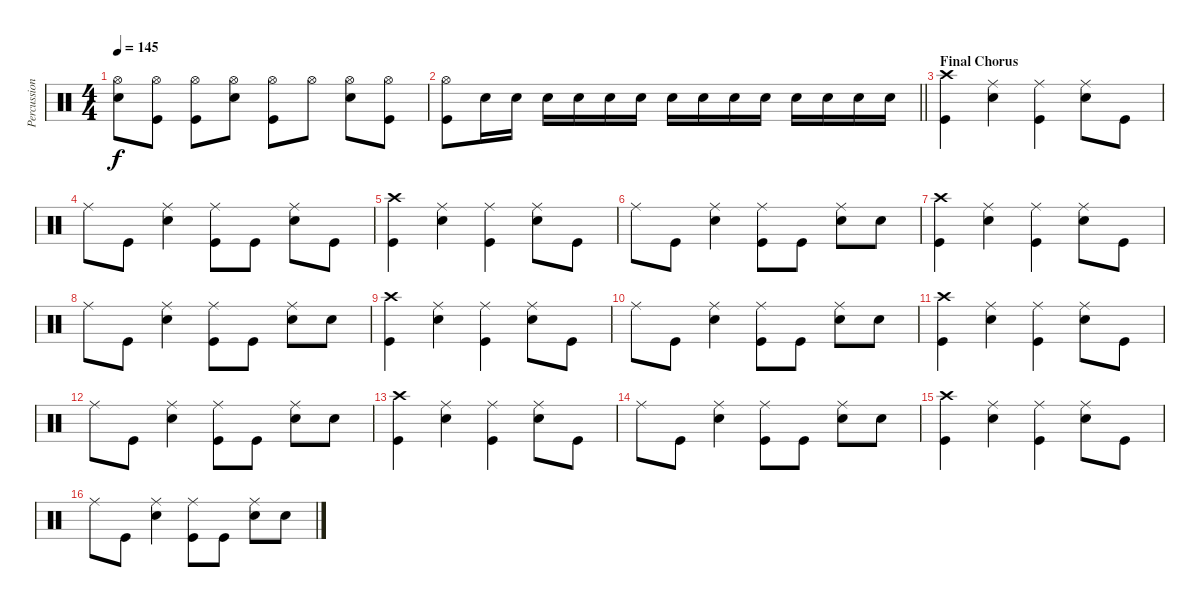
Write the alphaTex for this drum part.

\track ("Percussion" "Percussion") {instrument percussion}
\staff {score}
\articulation defaults
\ts (4 4)
\tempo 145
\clef neutral
\ks c
("Hi-Hat (open)" "Snare (hit) 2").8{dy f} ("Kick (hit)" "Hi-Hat (open)").8 ("Kick (hit)" "Hi-Hat (open)").8 ("Hi-Hat (open)" "Snare (hit) 2").8 ("Kick (hit)" "Hi-Hat (open)").8 "Hi-Hat (open)".8 ("Hi-Hat (open)" "Snare (hit) 2").8 ("Kick (hit)" "Hi-Hat (open)").8 |
\barLineRight lightlight
("Kick (hit)" "Hi-Hat (open)").8 "Snare (hit) 2".16 "Snare (hit) 2".16 "Snare (hit) 2".16 "Snare (hit) 2".16 "Snare (hit) 2".16 "Snare (hit) 2".16 "Snare (hit) 2".16 "Snare (hit) 2".16 "Snare (hit) 2".16 "Snare (hit) 2".16 "Snare (hit) 2".16 "Snare (hit) 2".16 "Snare (hit) 2".16 "Snare (hit) 2".16 |
\section ("" "Final Chorus")
("Kick (hit)" "Crash high (hit)").4 ("Ride (middle)" "Snare (hit) 2").4 ("Kick (hit)" "Ride (middle)").4 ("Ride (middle)" "Snare (hit) 2").8 "Kick (hit)".8 |
"Ride (middle)".8 "Kick (hit)".8 ("Ride (middle)" "Snare (hit) 2").4 ("Kick (hit)" "Ride (middle)").8 "Kick (hit)".8 ("Ride (middle)" "Snare (hit) 2").8 "Kick (hit)".8 |
("Kick (hit)" "Crash high (hit)").4 ("Ride (middle)" "Snare (hit) 2").4 ("Kick (hit)" "Ride (middle)").4 ("Ride (middle)" "Snare (hit) 2").8 "Kick (hit)".8 |
"Ride (middle)".8 "Kick (hit)".8 ("Ride (middle)" "Snare (hit) 2").4 ("Kick (hit)" "Ride (middle)").8 "Kick (hit)".8 ("Ride (middle)" "Snare (hit) 2").8 "Snare (hit) 2".8 |
("Kick (hit)" "Crash high (hit)").4 ("Ride (middle)" "Snare (hit) 2").4 ("Kick (hit)" "Ride (middle)").4 ("Ride (middle)" "Snare (hit) 2").8 "Kick (hit)".8 |
"Ride (middle)".8 "Kick (hit)".8 ("Ride (middle)" "Snare (hit) 2").4 ("Kick (hit)" "Ride (middle)").8 "Kick (hit)".8 ("Ride (middle)" "Snare (hit) 2").8 "Snare (hit) 2".8 |
("Kick (hit)" "Crash high (hit)").4 ("Ride (middle)" "Snare (hit) 2").4 ("Kick (hit)" "Ride (middle)").4 ("Ride (middle)" "Snare (hit) 2").8 "Kick (hit)".8 |
"Ride (middle)".8 "Kick (hit)".8 ("Ride (middle)" "Snare (hit) 2").4 ("Kick (hit)" "Ride (middle)").8 "Kick (hit)".8 ("Ride (middle)" "Snare (hit) 2").8 "Snare (hit) 2".8 |
("Kick (hit)" "Crash high (hit)").4 ("Ride (middle)" "Snare (hit) 2").4 ("Kick (hit)" "Ride (middle)").4 ("Ride (middle)" "Snare (hit) 2").8 "Kick (hit)".8 |
"Ride (middle)".8 "Kick (hit)".8 ("Ride (middle)" "Snare (hit) 2").4 ("Kick (hit)" "Ride (middle)").8 "Kick (hit)".8 ("Ride (middle)" "Snare (hit) 2").8 "Snare (hit) 2".8 |
("Kick (hit)" "Crash high (hit)").4 ("Ride (middle)" "Snare (hit) 2").4 ("Kick (hit)" "Ride (middle)").4 ("Ride (middle)" "Snare (hit) 2").8 "Kick (hit)".8 |
"Ride (middle)".8 "Kick (hit)".8 ("Ride (middle)" "Snare (hit) 2").4 ("Kick (hit)" "Ride (middle)").8 "Kick (hit)".8 ("Ride (middle)" "Snare (hit) 2").8 "Snare (hit) 2".8 |
("Kick (hit)" "Crash high (hit)").4 ("Ride (middle)" "Snare (hit) 2").4 ("Kick (hit)" "Ride (middle)").4 ("Ride (middle)" "Snare (hit) 2").8 "Kick (hit)".8 |
"Ride (middle)".8 "Kick (hit)".8 ("Ride (middle)" "Snare (hit) 2").4 ("Kick (hit)" "Ride (middle)").8 "Kick (hit)".8 ("Ride (middle)" "Snare (hit) 2").8 "Snare (hit) 2".8
